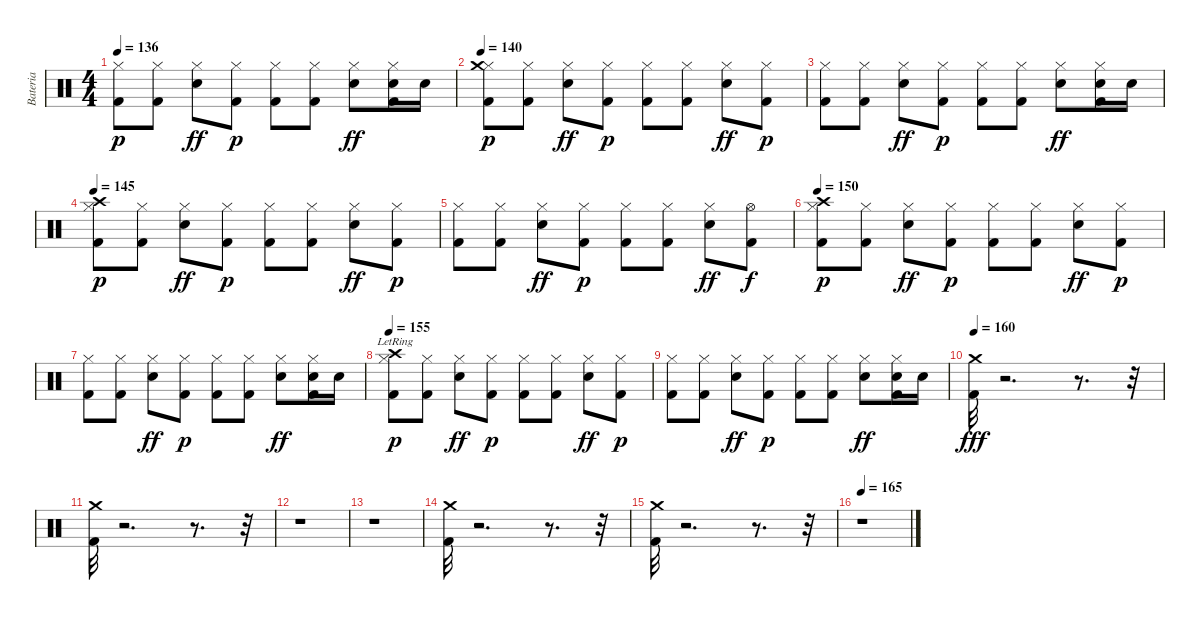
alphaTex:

\track ("Bateria" "Bateria") {instrument percussion}
\staff {score}
\articulation defaults
\ts (4 4)
\tempo 136
\clef neutral
\ks c
("Hi-Hat (closed)" "Kick (hit) 2").8{dy p} ("Hi-Hat (closed)" "Kick (hit) 2").8 ("Hi-Hat (closed)" "Snare (hit) 2").8{dy ff} ("Hi-Hat (closed)" "Kick (hit) 2").8{dy p} ("Hi-Hat (closed)" "Kick (hit) 2").8 ("Hi-Hat (closed)" "Kick (hit) 2").8 ("Hi-Hat (closed)" "Snare (hit) 2").8{dy ff} ("Hi-Hat (closed)" "Snare (hit) 2" "Kick (hit) 2").16 "Snare (hit) 2".16 |
\tempo 140
("Hi-Hat (closed)" "Kick (hit) 2" "Crash medium (hit)").8{dy p} ("Hi-Hat (closed)" "Kick (hit) 2").8 ("Hi-Hat (closed)" "Snare (hit) 2").8{dy ff} ("Hi-Hat (closed)" "Kick (hit) 2").8{dy p} ("Hi-Hat (closed)" "Kick (hit) 2").8 ("Hi-Hat (closed)" "Kick (hit) 2").8 ("Hi-Hat (closed)" "Snare (hit) 2").8{dy ff} ("Hi-Hat (closed)" "Kick (hit) 2").8{dy p} |
("Hi-Hat (closed)" "Kick (hit) 2").8 ("Hi-Hat (closed)" "Kick (hit) 2").8 ("Hi-Hat (closed)" "Snare (hit) 2").8{dy ff} ("Hi-Hat (closed)" "Kick (hit) 2").8{dy p} ("Hi-Hat (closed)" "Kick (hit) 2").8 ("Hi-Hat (closed)" "Kick (hit) 2").8 ("Hi-Hat (closed)" "Snare (hit) 2").8{dy ff} ("Hi-Hat (closed)" "Snare (hit) 2" "Kick (hit) 2").16 "Snare (hit) 2".16 |
\tempo 145
("Hi-Hat (closed)" "Kick (hit) 2" "Crash high (hit)").8{dy p} ("Hi-Hat (closed)" "Kick (hit) 2").8 ("Hi-Hat (closed)" "Snare (hit) 2").8{dy ff} ("Hi-Hat (closed)" "Kick (hit) 2").8{dy p} ("Hi-Hat (closed)" "Kick (hit) 2").8 ("Hi-Hat (closed)" "Kick (hit) 2").8 ("Hi-Hat (closed)" "Snare (hit) 2").8{dy ff} ("Hi-Hat (closed)" "Kick (hit) 2").8{dy p} |
("Hi-Hat (closed)" "Kick (hit) 2").8 ("Hi-Hat (closed)" "Kick (hit) 2").8 ("Hi-Hat (closed)" "Snare (hit) 2").8{dy ff} ("Hi-Hat (closed)" "Kick (hit) 2").8{dy p} ("Hi-Hat (closed)" "Kick (hit) 2").8 ("Hi-Hat (closed)" "Kick (hit) 2").8 ("Hi-Hat (closed)" "Snare (hit) 2").8{dy ff} ("Hi-Hat (open)" "Kick (hit) 2").8{dy f} |
\tempo 150
("Hi-Hat (closed)" "Kick (hit) 2" "Crash high (hit)").8{dy p} ("Hi-Hat (closed)" "Kick (hit) 2").8 ("Hi-Hat (closed)" "Snare (hit) 2").8{dy ff} ("Hi-Hat (closed)" "Kick (hit) 2").8{dy p} ("Hi-Hat (closed)" "Kick (hit) 2").8 ("Hi-Hat (closed)" "Kick (hit) 2").8 ("Hi-Hat (closed)" "Snare (hit) 2").8{dy ff} ("Hi-Hat (closed)" "Kick (hit) 2").8{dy p} |
("Hi-Hat (closed)" "Kick (hit) 2").8 ("Hi-Hat (closed)" "Kick (hit) 2").8 ("Hi-Hat (closed)" "Snare (hit) 2").8{dy ff} ("Hi-Hat (closed)" "Kick (hit) 2").8{dy p} ("Hi-Hat (closed)" "Kick (hit) 2").8 ("Hi-Hat (closed)" "Kick (hit) 2").8 ("Hi-Hat (closed)" "Snare (hit) 2").8{dy ff} ("Hi-Hat (closed)" "Snare (hit) 2" "Kick (hit) 2").16 "Snare (hit) 2".16 |
\tempo 155
("Hi-Hat (closed)" "Kick (hit) 2" "Crash high (hit)"{lr}).8{dy p} ("Hi-Hat (closed)" "Kick (hit) 2").8 ("Hi-Hat (closed)" "Snare (hit) 2").8{dy ff} ("Hi-Hat (closed)" "Kick (hit) 2").8{dy p} ("Hi-Hat (closed)" "Kick (hit) 2").8 ("Hi-Hat (closed)" "Kick (hit) 2").8 ("Hi-Hat (closed)" "Snare (hit) 2").8{dy ff} ("Hi-Hat (closed)" "Kick (hit) 2").8{dy p} |
("Hi-Hat (closed)" "Kick (hit) 2").8 ("Hi-Hat (closed)" "Kick (hit) 2").8 ("Hi-Hat (closed)" "Snare (hit) 2").8{dy ff} ("Hi-Hat (closed)" "Kick (hit) 2").8{dy p} ("Hi-Hat (closed)" "Kick (hit) 2").8 ("Hi-Hat (closed)" "Kick (hit) 2").8 ("Hi-Hat (closed)" "Snare (hit) 2").8{dy ff} ("Hi-Hat (closed)" "Snare (hit) 2" "Kick (hit) 2").16 "Snare (hit) 2".16 |
\tempo 160
("Kick (hit) 2" "Crash medium (hit)").32{dy fff} r.2{d} r.8{d} r.32 |
("Kick (hit) 2" "Crash medium (hit)").32 r.2{d} r.8{d} r.32 |
r.1 |
r.1 |
("Kick (hit) 2" "Crash medium (hit)").32 r.2{d} r.8{d} r.32 |
("Kick (hit) 2" "Crash medium (hit)").32 r.2{d} r.8{d} r.32 |
\tempo 165
r.1
